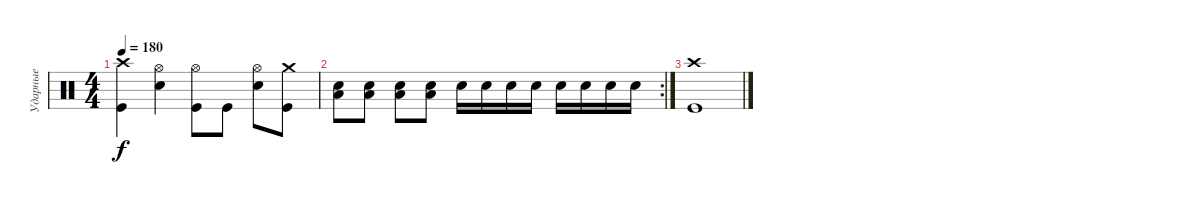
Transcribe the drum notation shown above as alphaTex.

\track ("Ударные" "Ударные") {instrument percussion}
\staff {score}
\articulation defaults
\ts (4 4)
\tempo 180
\clef neutral
\ks c
("Crash high (hit)" "Kick (hit)").4{dy f} ("Hi-Hat (open)" "Electric Snare (hit)").4 ("Hi-Hat (open)" "Kick (hit)").8 "Kick (hit)".8 ("Hi-Hat (open)" "Electric Snare (hit)").8 ("Crash medium (hit)" "Kick (hit)").8 |
\rc 2
("Low Floor Tom (hit)" "Electric Snare (hit)").8 ("Low Floor Tom (hit)" "Electric Snare (hit)").8 ("Low Floor Tom (hit)" "Electric Snare (hit)").8 ("Low Floor Tom (hit)" "Electric Snare (hit)").8 "Electric Snare (hit)".16 "Electric Snare (hit)".16 "Electric Snare (hit)".16 "Electric Snare (hit)".16 "Electric Snare (hit)".16 "Electric Snare (hit)".16 "Electric Snare (hit)".16 "Electric Snare (hit)".16 |
("Crash high (hit)" "Kick (hit)").1
